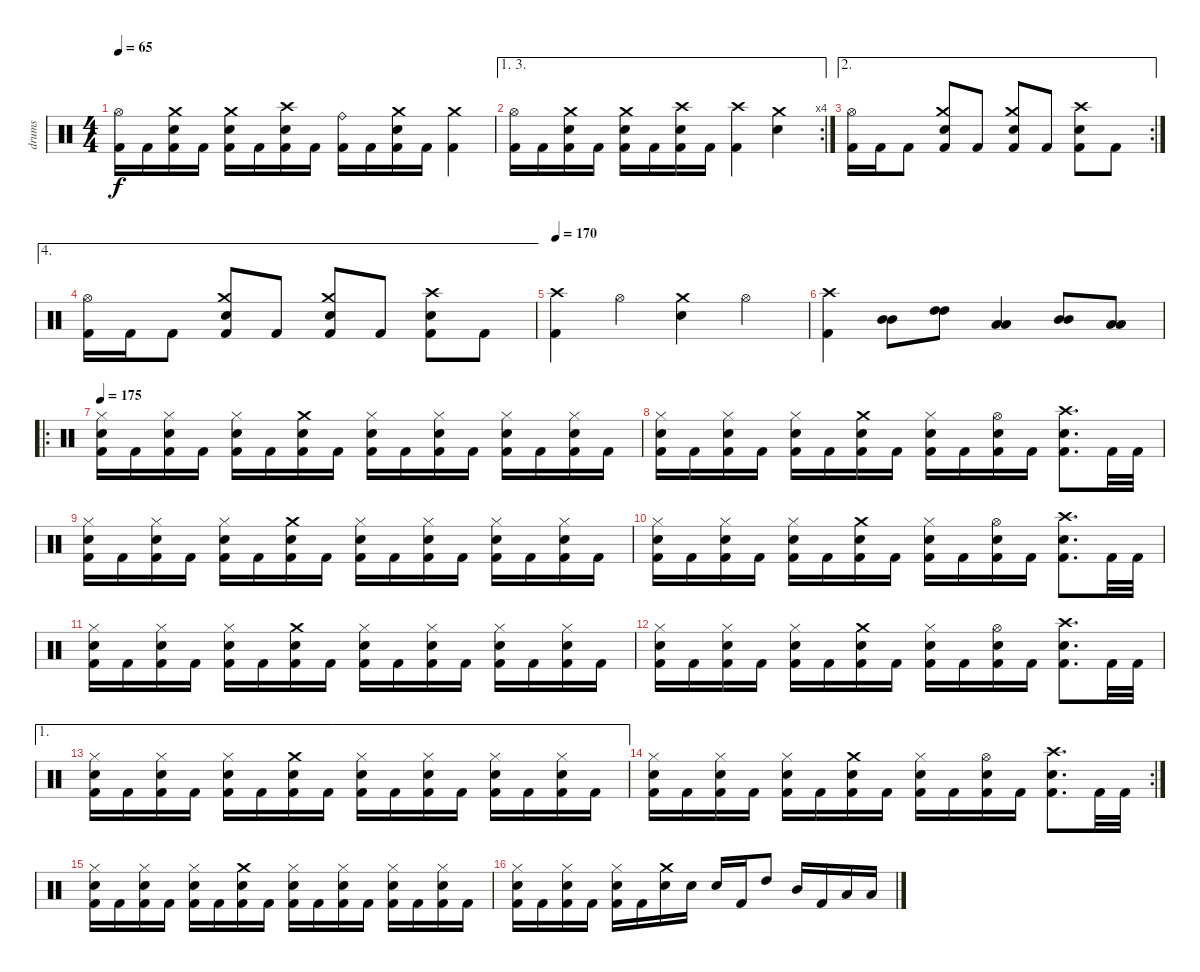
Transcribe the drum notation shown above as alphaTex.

\track ("drums" "drums") {instrument percussion}
\staff {score}
\articulation defaults
\ts (4 4)
\tempo 65
\clef neutral
\ks c
("Hi-Hat (open)" "Kick (hit) 2").16{dy f} "Kick (hit) 2".16 ("Crash medium (hit)" "Electric Snare (hit)" "Kick (hit) 2").16 "Kick (hit) 2".16 ("Crash medium (hit)" "Electric Snare (hit)" "Kick (hit) 2").16 "Kick (hit) 2".16 ("Crash high (hit)" "Electric Snare (hit)" "Kick (hit) 2").16 "Kick (hit) 2".16 ("Ride (bell)" "Kick (hit) 2").16 "Kick (hit) 2".16 ("Crash medium (hit)" "Electric Snare (hit)" "Kick (hit) 2").16 "Kick (hit) 2".16 ("Crash medium (hit)" "Kick (hit) 2").4 |
\ae (1 3)
\rc 4
("Hi-Hat (open)" "Kick (hit) 2").16 "Kick (hit) 2".16 ("Crash medium (hit)" "Electric Snare (hit)" "Kick (hit) 2").16 "Kick (hit) 2".16 ("Crash medium (hit)" "Electric Snare (hit)" "Kick (hit) 2").16 "Kick (hit) 2".16 ("Crash high (hit)" "Electric Snare (hit)" "Kick (hit) 2").16 "Kick (hit) 2".16 ("Crash high (hit)" "Kick (hit) 2").4 ("Crash medium (hit)" "Electric Snare (hit)").4 |
\ae 2
\rc 2
("Hi-Hat (open)" "Kick (hit) 2").16 "Kick (hit) 2".16 "Kick (hit) 2".8 ("Crash medium (hit)" "Electric Snare (hit)" "Kick (hit) 2").8 "Kick (hit) 2".8 ("Crash medium (hit)" "Electric Snare (hit)" "Kick (hit) 2").8 "Kick (hit) 2".8 ("Crash high (hit)" "Electric Snare (hit)" "Kick (hit) 2").8 "Kick (hit) 2".8 |
\ae 4
("Hi-Hat (open)" "Kick (hit) 2").16 "Kick (hit) 2".16 "Kick (hit) 2".8 ("Crash medium (hit)" "Electric Snare (hit)" "Kick (hit) 2").8 "Kick (hit) 2".8 ("Crash medium (hit)" "Electric Snare (hit)" "Kick (hit) 2").8 "Kick (hit) 2".8 ("Crash high (hit)" "Electric Snare (hit)" "Kick (hit) 2").8 "Kick (hit) 2".8 |
\tempo 170
("Crash high (hit)" "Kick (hit) 2").4 "Hi-Hat (open)".4 ("Crash medium (hit)" "Electric Snare (hit)").4 "Hi-Hat (open)".4 |
("Crash high (hit)" "Kick (hit) 2").4 ("Mid Tom (hit)" "Mid Tom (hit)").8 ("High Tom (hit)" "High Tom (hit)").8 ("Low Tom (hit)" "Low Tom (hit)").4 ("Mid Tom (hit)" "Mid Tom (hit)").8 ("Low Tom (hit)" "Low Tom (hit)").8 |
\ro
\tempo 175
("Hi-Hat (closed)" "Electric Snare (hit)" "Kick (hit) 2").16 "Kick (hit) 2".16 ("Hi-Hat (closed)" "Electric Snare (hit)" "Kick (hit) 2").16 "Kick (hit) 2".16 ("Hi-Hat (closed)" "Electric Snare (hit)" "Kick (hit) 2").16 "Kick (hit) 2".16 ("Crash medium (hit)" "Electric Snare (hit)" "Kick (hit) 2").16 "Kick (hit) 2".16 ("Hi-Hat (closed)" "Electric Snare (hit)" "Kick (hit) 2").16 "Kick (hit) 2".16 ("Hi-Hat (closed)" "Electric Snare (hit)" "Kick (hit) 2").16 "Kick (hit) 2".16 ("Hi-Hat (closed)" "Electric Snare (hit)" "Kick (hit) 2").16 "Kick (hit) 2".16 ("Hi-Hat (closed)" "Electric Snare (hit)" "Kick (hit) 2").16 "Kick (hit) 2".16 |
("Hi-Hat (closed)" "Electric Snare (hit)" "Kick (hit) 2").16 "Kick (hit) 2".16 ("Hi-Hat (closed)" "Electric Snare (hit)" "Kick (hit) 2").16 "Kick (hit) 2".16 ("Hi-Hat (closed)" "Electric Snare (hit)" "Kick (hit) 2").16 "Kick (hit) 2".16 ("Crash medium (hit)" "Electric Snare (hit)" "Kick (hit) 2").16 "Kick (hit) 2".16 ("Hi-Hat (closed)" "Electric Snare (hit)" "Kick (hit) 2").16 "Kick (hit) 2".16 ("Hi-Hat (open)" "Electric Snare (hit)" "Kick (hit) 2").16 "Kick (hit) 2".16 ("Crash high (hit)" "Electric Snare (hit)" "Kick (hit) 2").8{d} "Kick (hit) 2".32 "Kick (hit) 2".32 |
("Hi-Hat (closed)" "Electric Snare (hit)" "Kick (hit) 2").16 "Kick (hit) 2".16 ("Hi-Hat (closed)" "Electric Snare (hit)" "Kick (hit) 2").16 "Kick (hit) 2".16 ("Hi-Hat (closed)" "Electric Snare (hit)" "Kick (hit) 2").16 "Kick (hit) 2".16 ("Crash medium (hit)" "Electric Snare (hit)" "Kick (hit) 2").16 "Kick (hit) 2".16 ("Hi-Hat (closed)" "Electric Snare (hit)" "Kick (hit) 2").16 "Kick (hit) 2".16 ("Hi-Hat (closed)" "Electric Snare (hit)" "Kick (hit) 2").16 "Kick (hit) 2".16 ("Hi-Hat (closed)" "Electric Snare (hit)" "Kick (hit) 2").16 "Kick (hit) 2".16 ("Hi-Hat (closed)" "Electric Snare (hit)" "Kick (hit) 2").16 "Kick (hit) 2".16 |
("Hi-Hat (closed)" "Electric Snare (hit)" "Kick (hit) 2").16 "Kick (hit) 2".16 ("Hi-Hat (closed)" "Electric Snare (hit)" "Kick (hit) 2").16 "Kick (hit) 2".16 ("Hi-Hat (closed)" "Electric Snare (hit)" "Kick (hit) 2").16 "Kick (hit) 2".16 ("Crash medium (hit)" "Electric Snare (hit)" "Kick (hit) 2").16 "Kick (hit) 2".16 ("Hi-Hat (closed)" "Electric Snare (hit)" "Kick (hit) 2").16 "Kick (hit) 2".16 ("Hi-Hat (open)" "Electric Snare (hit)" "Kick (hit) 2").16 "Kick (hit) 2".16 ("Crash high (hit)" "Electric Snare (hit)" "Kick (hit) 2").8{d} "Kick (hit) 2".32 "Kick (hit) 2".32 |
("Hi-Hat (closed)" "Electric Snare (hit)" "Kick (hit) 2").16 "Kick (hit) 2".16 ("Hi-Hat (closed)" "Electric Snare (hit)" "Kick (hit) 2").16 "Kick (hit) 2".16 ("Hi-Hat (closed)" "Electric Snare (hit)" "Kick (hit) 2").16 "Kick (hit) 2".16 ("Crash medium (hit)" "Electric Snare (hit)" "Kick (hit) 2").16 "Kick (hit) 2".16 ("Hi-Hat (closed)" "Electric Snare (hit)" "Kick (hit) 2").16 "Kick (hit) 2".16 ("Hi-Hat (closed)" "Electric Snare (hit)" "Kick (hit) 2").16 "Kick (hit) 2".16 ("Hi-Hat (closed)" "Electric Snare (hit)" "Kick (hit) 2").16 "Kick (hit) 2".16 ("Hi-Hat (closed)" "Electric Snare (hit)" "Kick (hit) 2").16 "Kick (hit) 2".16 |
("Hi-Hat (closed)" "Electric Snare (hit)" "Kick (hit) 2").16 "Kick (hit) 2".16 ("Hi-Hat (closed)" "Electric Snare (hit)" "Kick (hit) 2").16 "Kick (hit) 2".16 ("Hi-Hat (closed)" "Electric Snare (hit)" "Kick (hit) 2").16 "Kick (hit) 2".16 ("Crash medium (hit)" "Electric Snare (hit)" "Kick (hit) 2").16 "Kick (hit) 2".16 ("Hi-Hat (closed)" "Electric Snare (hit)" "Kick (hit) 2").16 "Kick (hit) 2".16 ("Hi-Hat (open)" "Electric Snare (hit)" "Kick (hit) 2").16 "Kick (hit) 2".16 ("Crash high (hit)" "Electric Snare (hit)" "Kick (hit) 2").8{d} "Kick (hit) 2".32 "Kick (hit) 2".32 |
\ae 1
("Hi-Hat (closed)" "Electric Snare (hit)" "Kick (hit) 2").16 "Kick (hit) 2".16 ("Hi-Hat (closed)" "Electric Snare (hit)" "Kick (hit) 2").16 "Kick (hit) 2".16 ("Hi-Hat (closed)" "Electric Snare (hit)" "Kick (hit) 2").16 "Kick (hit) 2".16 ("Crash medium (hit)" "Electric Snare (hit)" "Kick (hit) 2").16 "Kick (hit) 2".16 ("Hi-Hat (closed)" "Electric Snare (hit)" "Kick (hit) 2").16 "Kick (hit) 2".16 ("Hi-Hat (closed)" "Electric Snare (hit)" "Kick (hit) 2").16 "Kick (hit) 2".16 ("Hi-Hat (closed)" "Electric Snare (hit)" "Kick (hit) 2").16 "Kick (hit) 2".16 ("Hi-Hat (closed)" "Electric Snare (hit)" "Kick (hit) 2").16 "Kick (hit) 2".16 |
\rc 2
("Hi-Hat (closed)" "Electric Snare (hit)" "Kick (hit) 2").16 "Kick (hit) 2".16 ("Hi-Hat (closed)" "Electric Snare (hit)" "Kick (hit) 2").16 "Kick (hit) 2".16 ("Hi-Hat (closed)" "Electric Snare (hit)" "Kick (hit) 2").16 "Kick (hit) 2".16 ("Crash medium (hit)" "Electric Snare (hit)" "Kick (hit) 2").16 "Kick (hit) 2".16 ("Hi-Hat (closed)" "Electric Snare (hit)" "Kick (hit) 2").16 "Kick (hit) 2".16 ("Hi-Hat (open)" "Electric Snare (hit)" "Kick (hit) 2").16 "Kick (hit) 2".16 ("Crash high (hit)" "Electric Snare (hit)" "Kick (hit) 2").8{d} "Kick (hit) 2".32 "Kick (hit) 2".32 |
("Hi-Hat (closed)" "Electric Snare (hit)" "Kick (hit) 2").16 "Kick (hit) 2".16 ("Hi-Hat (closed)" "Electric Snare (hit)" "Kick (hit) 2").16 "Kick (hit) 2".16 ("Hi-Hat (closed)" "Electric Snare (hit)" "Kick (hit) 2").16 "Kick (hit) 2".16 ("Crash medium (hit)" "Electric Snare (hit)" "Kick (hit) 2").16 "Kick (hit) 2".16 ("Hi-Hat (closed)" "Electric Snare (hit)" "Kick (hit) 2").16 "Kick (hit) 2".16 ("Hi-Hat (closed)" "Electric Snare (hit)" "Kick (hit) 2").16 "Kick (hit) 2".16 ("Hi-Hat (closed)" "Electric Snare (hit)" "Kick (hit) 2").16 "Kick (hit) 2".16 ("Hi-Hat (closed)" "Electric Snare (hit)" "Kick (hit) 2").16 "Kick (hit) 2".16 |
("Hi-Hat (closed)" "Electric Snare (hit)" "Kick (hit) 2").16 "Kick (hit) 2".16 ("Hi-Hat (closed)" "Electric Snare (hit)" "Kick (hit) 2").16 "Kick (hit) 2".16 ("Hi-Hat (closed)" "Electric Snare (hit)" "Kick (hit) 2").16 "Kick (hit) 2".16 ("Crash medium (hit)" "Electric Snare (hit)").16 "Electric Snare (hit)".16 "Electric Snare (hit)".16 "Kick (hit) 2".16 "High Tom (hit)".8 "Mid Tom (hit)".16 "Kick (hit) 2".16 "Low Tom (hit)".16 "Low Tom (hit)".16
